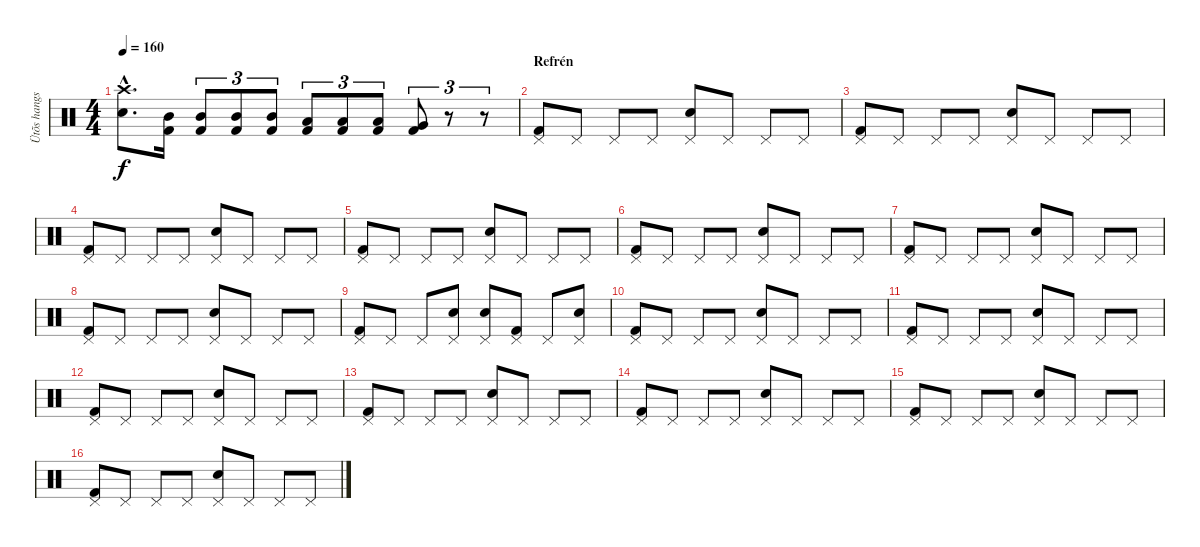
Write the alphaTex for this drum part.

\track ("Ütõs hangszer" "Ütõs hangs") {instrument percussion}
\staff {score}
\articulation defaults
\ts (4 4)
\tempo 160
\clef neutral
\ks c
("Crash high (hit)"{hac} "Snare (hit) 2"{hac}).8{d dy f} ("Mid Tom (hit)" "Kick (hit) 2").16 ("Mid Tom (hit)" "Kick (hit) 2").8{tu (3 2)} ("Mid Tom (hit)" "Kick (hit) 2").8{tu (3 2)} ("Mid Tom (hit)" "Kick (hit) 2").8{tu (3 2)} ("Low Tom (hit)" "Kick (hit) 2").8{tu (3 2)} ("Low Tom (hit)" "Kick (hit) 2").8{tu (3 2)} ("Low Tom (hit)" "Kick (hit) 2").8{tu (3 2)} ("Very Low Tom (hit)" "Kick (hit) 2").8{tu (3 2)} r.8{tu (3 2)} r.8{tu (3 2)} |
\section ("" "Refrén")
("Pedal Hi-Hat (hit)" "Kick (hit) 2").8 "Pedal Hi-Hat (hit)".8 "Pedal Hi-Hat (hit)".8 "Pedal Hi-Hat (hit)".8 ("Pedal Hi-Hat (hit)" "Snare (hit) 2").8 "Pedal Hi-Hat (hit)".8 "Pedal Hi-Hat (hit)".8 "Pedal Hi-Hat (hit)".8 |
("Pedal Hi-Hat (hit)" "Kick (hit) 2").8 "Pedal Hi-Hat (hit)".8 "Pedal Hi-Hat (hit)".8 "Pedal Hi-Hat (hit)".8 ("Pedal Hi-Hat (hit)" "Snare (hit) 2").8 "Pedal Hi-Hat (hit)".8 "Pedal Hi-Hat (hit)".8 "Pedal Hi-Hat (hit)".8 |
("Pedal Hi-Hat (hit)" "Kick (hit) 2").8 "Pedal Hi-Hat (hit)".8 "Pedal Hi-Hat (hit)".8 "Pedal Hi-Hat (hit)".8 ("Pedal Hi-Hat (hit)" "Snare (hit) 2").8 "Pedal Hi-Hat (hit)".8 "Pedal Hi-Hat (hit)".8 "Pedal Hi-Hat (hit)".8 |
("Pedal Hi-Hat (hit)" "Kick (hit) 2").8 "Pedal Hi-Hat (hit)".8 "Pedal Hi-Hat (hit)".8 "Pedal Hi-Hat (hit)".8 ("Pedal Hi-Hat (hit)" "Snare (hit) 2").8 "Pedal Hi-Hat (hit)".8 "Pedal Hi-Hat (hit)".8 "Pedal Hi-Hat (hit)".8 |
("Pedal Hi-Hat (hit)" "Kick (hit) 2").8 "Pedal Hi-Hat (hit)".8 "Pedal Hi-Hat (hit)".8 "Pedal Hi-Hat (hit)".8 ("Pedal Hi-Hat (hit)" "Snare (hit) 2").8 "Pedal Hi-Hat (hit)".8 "Pedal Hi-Hat (hit)".8 "Pedal Hi-Hat (hit)".8 |
("Pedal Hi-Hat (hit)" "Kick (hit) 2").8 "Pedal Hi-Hat (hit)".8 "Pedal Hi-Hat (hit)".8 "Pedal Hi-Hat (hit)".8 ("Pedal Hi-Hat (hit)" "Snare (hit) 2").8 "Pedal Hi-Hat (hit)".8 "Pedal Hi-Hat (hit)".8 "Pedal Hi-Hat (hit)".8 |
("Pedal Hi-Hat (hit)" "Kick (hit) 2").8 "Pedal Hi-Hat (hit)".8 "Pedal Hi-Hat (hit)".8 "Pedal Hi-Hat (hit)".8 ("Pedal Hi-Hat (hit)" "Snare (hit) 2").8 "Pedal Hi-Hat (hit)".8 "Pedal Hi-Hat (hit)".8 "Pedal Hi-Hat (hit)".8 |
("Pedal Hi-Hat (hit)" "Kick (hit) 2").8 "Pedal Hi-Hat (hit)".8 "Pedal Hi-Hat (hit)".8 ("Pedal Hi-Hat (hit)" "Snare (hit) 2").8 ("Pedal Hi-Hat (hit)" "Snare (hit) 2").8 ("Pedal Hi-Hat (hit)" "Kick (hit) 2").8 "Pedal Hi-Hat (hit)".8 ("Pedal Hi-Hat (hit)" "Snare (hit) 2").8 |
("Pedal Hi-Hat (hit)" "Kick (hit) 2").8 "Pedal Hi-Hat (hit)".8 "Pedal Hi-Hat (hit)".8 "Pedal Hi-Hat (hit)".8 ("Pedal Hi-Hat (hit)" "Snare (hit) 2").8 "Pedal Hi-Hat (hit)".8 "Pedal Hi-Hat (hit)".8 "Pedal Hi-Hat (hit)".8 |
("Pedal Hi-Hat (hit)" "Kick (hit) 2").8 "Pedal Hi-Hat (hit)".8 "Pedal Hi-Hat (hit)".8 "Pedal Hi-Hat (hit)".8 ("Pedal Hi-Hat (hit)" "Snare (hit) 2").8 "Pedal Hi-Hat (hit)".8 "Pedal Hi-Hat (hit)".8 "Pedal Hi-Hat (hit)".8 |
("Pedal Hi-Hat (hit)" "Kick (hit) 2").8 "Pedal Hi-Hat (hit)".8 "Pedal Hi-Hat (hit)".8 "Pedal Hi-Hat (hit)".8 ("Pedal Hi-Hat (hit)" "Snare (hit) 2").8 "Pedal Hi-Hat (hit)".8 "Pedal Hi-Hat (hit)".8 "Pedal Hi-Hat (hit)".8 |
("Pedal Hi-Hat (hit)" "Kick (hit) 2").8 "Pedal Hi-Hat (hit)".8 "Pedal Hi-Hat (hit)".8 "Pedal Hi-Hat (hit)".8 ("Pedal Hi-Hat (hit)" "Snare (hit) 2").8 "Pedal Hi-Hat (hit)".8 "Pedal Hi-Hat (hit)".8 "Pedal Hi-Hat (hit)".8 |
("Pedal Hi-Hat (hit)" "Kick (hit) 2").8 "Pedal Hi-Hat (hit)".8 "Pedal Hi-Hat (hit)".8 "Pedal Hi-Hat (hit)".8 ("Pedal Hi-Hat (hit)" "Snare (hit) 2").8 "Pedal Hi-Hat (hit)".8 "Pedal Hi-Hat (hit)".8 "Pedal Hi-Hat (hit)".8 |
("Pedal Hi-Hat (hit)" "Kick (hit) 2").8 "Pedal Hi-Hat (hit)".8 "Pedal Hi-Hat (hit)".8 "Pedal Hi-Hat (hit)".8 ("Pedal Hi-Hat (hit)" "Snare (hit) 2").8 "Pedal Hi-Hat (hit)".8 "Pedal Hi-Hat (hit)".8 "Pedal Hi-Hat (hit)".8 |
("Pedal Hi-Hat (hit)" "Kick (hit) 2").8 "Pedal Hi-Hat (hit)".8 "Pedal Hi-Hat (hit)".8 "Pedal Hi-Hat (hit)".8 ("Pedal Hi-Hat (hit)" "Snare (hit) 2").8 "Pedal Hi-Hat (hit)".8 "Pedal Hi-Hat (hit)".8 "Pedal Hi-Hat (hit)".8
